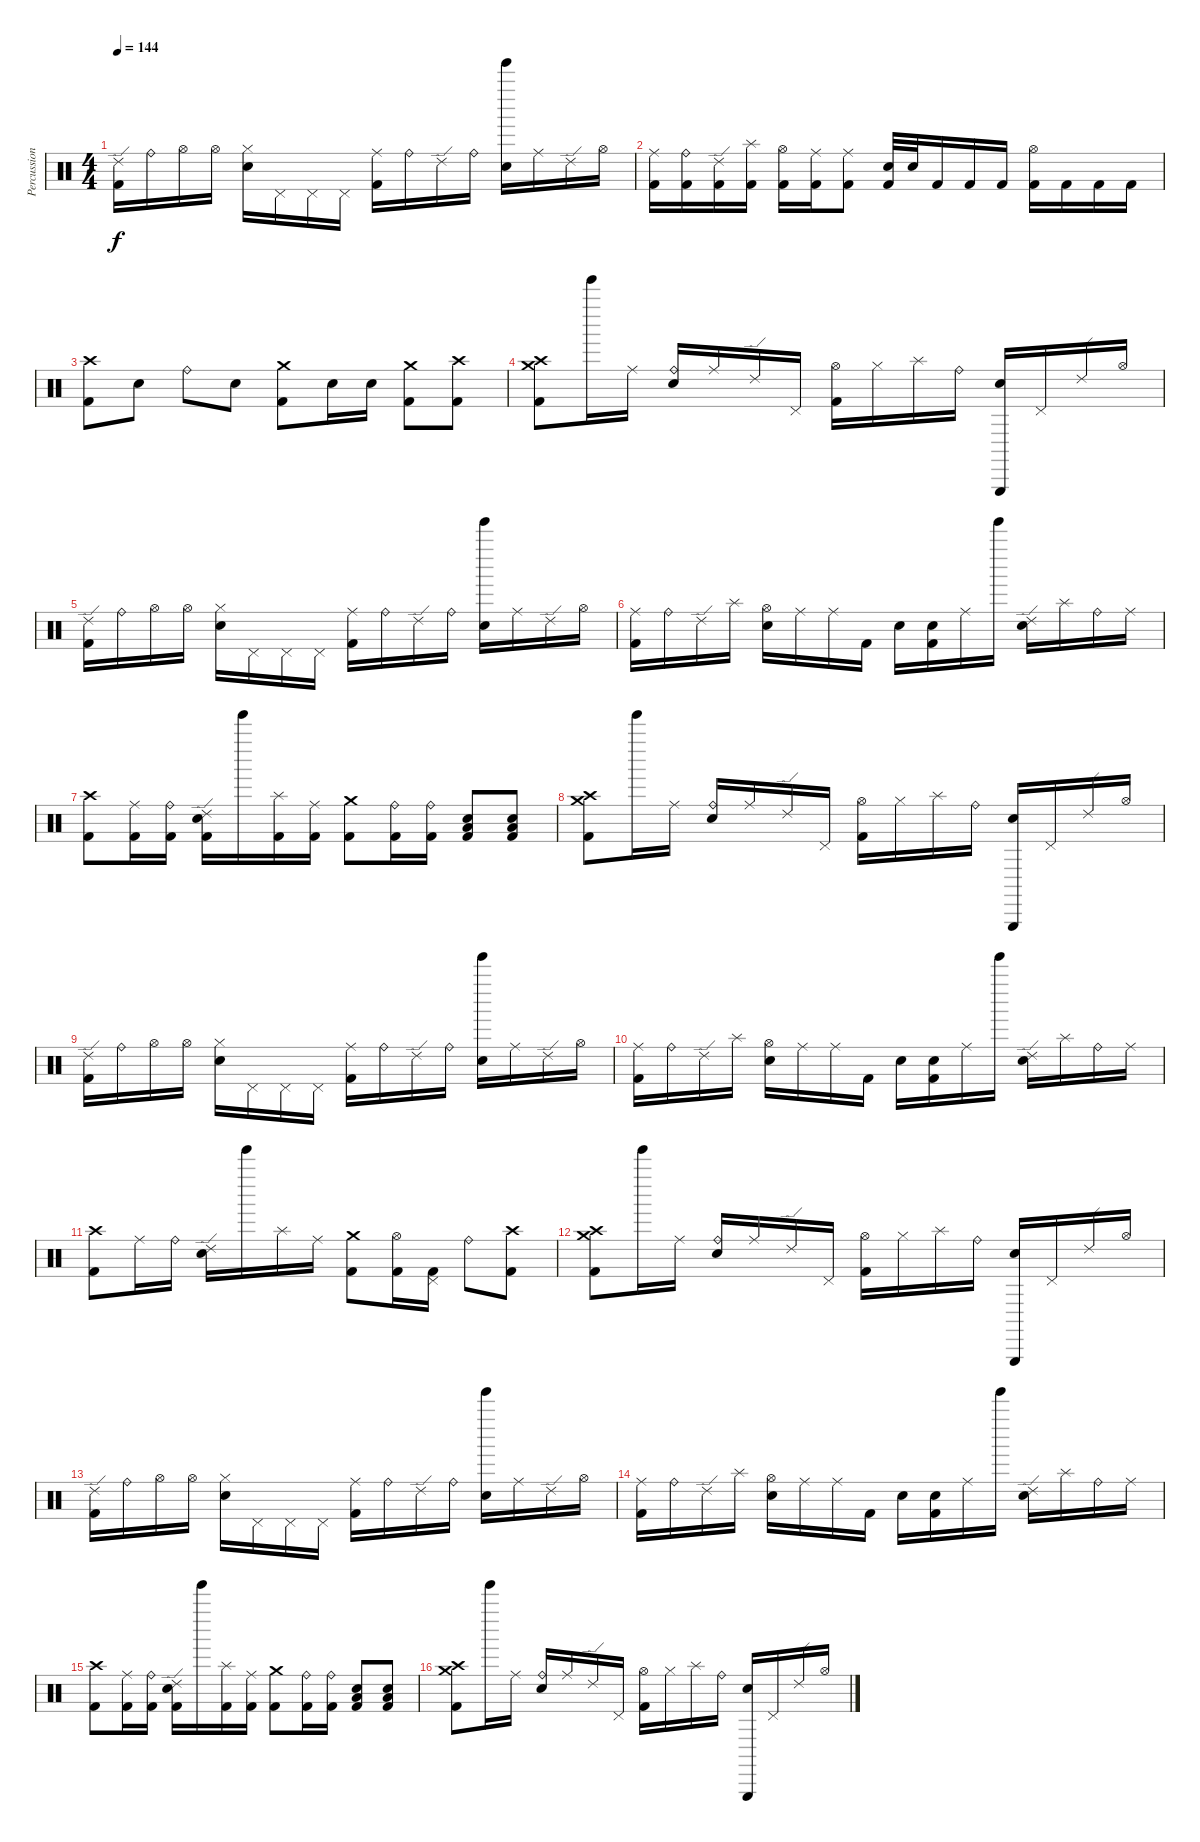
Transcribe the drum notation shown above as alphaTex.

\track ("Percussion" "Percussion") {instrument percussion}
\staff {score}
\articulation defaults
\ts (4 4)
\tempo 144
\clef neutral
\ks c
("Ride (edge) 2" "Kick (hit) 2").16{dy f} "Ride (bell)".16 "Hi-Hat (open)".16 "Hi-Hat (open)".16 ("Hi-Hat (closed)" "Electric Snare (hit)").16 "Pedal Hi-Hat (hit)".16 "Pedal Hi-Hat (hit)".16 "Pedal Hi-Hat (hit)".16 ("Ride (middle)" "Kick (hit) 2").16 "Ride (bell)".16 "Ride (edge) 2".16 "Ride (bell)".16 ("Tinkle Bell (hit)" "Electric Snare (hit)").16 "Ride (middle)".16 "Ride (edge) 2".16 "Hi-Hat (open)".16 |
("Ride (middle)" "Kick (hit) 2").16 ("Ride (bell)" "Kick (hit) 2").16 ("Ride (edge) 2" "Kick (hit) 2").16 ("Splash (hit)" "Kick (hit) 2").16 ("Hi-Hat (open)" "Kick (hit) 2").16 ("Ride (middle)" "Kick (hit) 2").16 ("Ride (middle)" "Kick (hit) 2").8 ("Electric Snare (hit)" "Kick (hit) 2").32 "Electric Snare (hit)".32 "Kick (hit) 2".16 "Kick (hit) 2".16 "Kick (hit) 2".16 ("Hi-Hat (open)" "Kick (hit) 2").16 "Kick (hit) 2".16 "Kick (hit) 2".16 "Kick (hit) 2".16 |
("Crash high (hit)" "Kick (hit) 2").8 "Electric Snare (hit)".8 "Ride (bell)".8 "Electric Snare (hit)".8 ("Crash medium (hit)" "Kick (hit) 2").8 "Electric Snare (hit)".16 "Electric Snare (hit)".16 ("Crash medium (hit)" "Kick (hit) 2").8 ("Crash high (hit)" "Kick (hit) 2").8 |
("Crash medium (hit)" "Crash high (hit)" "Kick (hit) 2").8 "Tinkle Bell (hit)".16 "Ride (middle)".16 ("Ride (bell)" "Electric Snare (hit)").16 "Ride (middle)".16 "Ride (edge) 2".16 "Pedal Hi-Hat (hit)".16 ("Hi-Hat (open)" "Kick (hit) 2").16 "Hi-Hat (closed)".16 "Splash (hit)".16 "Ride (bell)".16 ("Triangle (hit)" "Electric Snare (hit)").16 "Pedal Hi-Hat (hit)".16 "Ride (edge) 2".16 "Hi-Hat (open)".16 |
("Ride (edge) 2" "Kick (hit) 2").16 "Ride (bell)".16 "Hi-Hat (open)".16 "Hi-Hat (open)".16 ("Hi-Hat (closed)" "Electric Snare (hit)").16 "Pedal Hi-Hat (hit)".16 "Pedal Hi-Hat (hit)".16 "Pedal Hi-Hat (hit)".16 ("Ride (middle)" "Kick (hit) 2").16 "Ride (bell)".16 "Ride (edge) 2".16 "Ride (bell)".16 ("Tinkle Bell (hit)" "Electric Snare (hit)").16 "Ride (middle)".16 "Ride (edge) 2".16 "Hi-Hat (open)".16 |
("Ride (middle)" "Kick (hit) 2").16 "Ride (bell)".16 "Ride (edge) 2".16 "Splash (hit)".16 ("Hi-Hat (open)" "Electric Snare (hit)").16 "Ride (middle)".16 "Ride (middle)".16 "Kick (hit) 2".16 "Electric Snare (hit)".16 ("Electric Snare (hit)" "Kick (hit) 2").16 "Ride (middle)".16 "Tinkle Bell (hit)".16 ("Ride (edge) 2" "Electric Snare (hit)").16 "Splash (hit)".16 "Ride (bell)".16 "Ride (middle)".16 |
("Crash high (hit)" "Kick (hit) 2").8 ("Ride (middle)" "Kick (hit) 2").16 ("Ride (bell)" "Kick (hit) 2").16 ("Ride (edge) 2" "Electric Snare (hit)" "Kick (hit) 2").16 "Tinkle Bell (hit)".16 ("Splash (hit)" "Kick (hit) 2").16 ("Ride (middle)" "Kick (hit) 2").16 ("Crash medium (hit)" "Kick (hit) 2").8 ("Ride (bell)" "Kick (hit) 2").16 ("Ride (bell)" "Kick (hit) 2").16 ("Low Tom (hit)" "Electric Snare (hit)" "Kick (hit) 2").8 ("Low Tom (hit)" "Electric Snare (hit)" "Kick (hit) 2").8 |
("Crash medium (hit)" "Crash high (hit)" "Kick (hit) 2").8 "Tinkle Bell (hit)".16 "Ride (middle)".16 ("Ride (bell)" "Electric Snare (hit)").16 "Ride (middle)".16 "Ride (edge) 2".16 "Pedal Hi-Hat (hit)".16 ("Hi-Hat (open)" "Kick (hit) 2").16 "Hi-Hat (closed)".16 "Splash (hit)".16 "Ride (bell)".16 ("Triangle (hit)" "Electric Snare (hit)").16 "Pedal Hi-Hat (hit)".16 "Ride (edge) 2".16 "Hi-Hat (open)".16 |
("Ride (edge) 2" "Kick (hit) 2").16 "Ride (bell)".16 "Hi-Hat (open)".16 "Hi-Hat (open)".16 ("Hi-Hat (closed)" "Electric Snare (hit)").16 "Pedal Hi-Hat (hit)".16 "Pedal Hi-Hat (hit)".16 "Pedal Hi-Hat (hit)".16 ("Ride (middle)" "Kick (hit) 2").16 "Ride (bell)".16 "Ride (edge) 2".16 "Ride (bell)".16 ("Tinkle Bell (hit)" "Electric Snare (hit)").16 "Ride (middle)".16 "Ride (edge) 2".16 "Hi-Hat (open)".16 |
("Ride (middle)" "Kick (hit) 2").16 "Ride (bell)".16 "Ride (edge) 2".16 "Splash (hit)".16 ("Hi-Hat (open)" "Electric Snare (hit)").16 "Ride (middle)".16 "Ride (middle)".16 "Kick (hit) 2".16 "Electric Snare (hit)".16 ("Electric Snare (hit)" "Kick (hit) 2").16 "Ride (middle)".16 "Tinkle Bell (hit)".16 ("Ride (edge) 2" "Electric Snare (hit)").16 "Splash (hit)".16 "Ride (bell)".16 "Ride (middle)".16 |
("Crash high (hit)" "Kick (hit) 2").8 "Ride (middle)".16 "Ride (bell)".16 ("Ride (edge) 2" "Electric Snare (hit)").16 "Tinkle Bell (hit)".16 "Splash (hit)".16 "Ride (middle)".16 ("Crash medium (hit)" "Kick (hit) 2").8 ("Hi-Hat (open)" "Kick (hit) 2").16 ("Pedal Hi-Hat (hit)" "Kick (hit) 2").16 "Ride (bell)".8 ("Crash high (hit)" "Kick (hit) 2").8 |
("Crash medium (hit)" "Crash high (hit)" "Kick (hit) 2").8 "Tinkle Bell (hit)".16 "Ride (middle)".16 ("Ride (bell)" "Electric Snare (hit)").16 "Ride (middle)".16 "Ride (edge) 2".16 "Pedal Hi-Hat (hit)".16 ("Hi-Hat (open)" "Kick (hit) 2").16 "Hi-Hat (closed)".16 "Splash (hit)".16 "Ride (bell)".16 ("Triangle (hit)" "Electric Snare (hit)").16 "Pedal Hi-Hat (hit)".16 "Ride (edge) 2".16 "Hi-Hat (open)".16 |
("Ride (edge) 2" "Kick (hit) 2").16 "Ride (bell)".16 "Hi-Hat (open)".16 "Hi-Hat (open)".16 ("Hi-Hat (closed)" "Electric Snare (hit)").16 "Pedal Hi-Hat (hit)".16 "Pedal Hi-Hat (hit)".16 "Pedal Hi-Hat (hit)".16 ("Ride (middle)" "Kick (hit) 2").16 "Ride (bell)".16 "Ride (edge) 2".16 "Ride (bell)".16 ("Tinkle Bell (hit)" "Electric Snare (hit)").16 "Ride (middle)".16 "Ride (edge) 2".16 "Hi-Hat (open)".16 |
("Ride (middle)" "Kick (hit) 2").16 "Ride (bell)".16 "Ride (edge) 2".16 "Splash (hit)".16 ("Hi-Hat (open)" "Electric Snare (hit)").16 "Ride (middle)".16 "Ride (middle)".16 "Kick (hit) 2".16 "Electric Snare (hit)".16 ("Electric Snare (hit)" "Kick (hit) 2").16 "Ride (middle)".16 "Tinkle Bell (hit)".16 ("Ride (edge) 2" "Electric Snare (hit)").16 "Splash (hit)".16 "Ride (bell)".16 "Ride (middle)".16 |
("Crash high (hit)" "Kick (hit) 2").8 ("Ride (middle)" "Kick (hit) 2").16 ("Ride (bell)" "Kick (hit) 2").16 ("Ride (edge) 2" "Electric Snare (hit)" "Kick (hit) 2").16 "Tinkle Bell (hit)".16 ("Splash (hit)" "Kick (hit) 2").16 ("Ride (middle)" "Kick (hit) 2").16 ("Crash medium (hit)" "Kick (hit) 2").8 ("Ride (bell)" "Kick (hit) 2").16 ("Ride (bell)" "Kick (hit) 2").16 ("Low Tom (hit)" "Electric Snare (hit)" "Kick (hit) 2").8 ("Low Tom (hit)" "Electric Snare (hit)" "Kick (hit) 2").8 |
("Crash medium (hit)" "Crash high (hit)" "Kick (hit) 2").8 "Tinkle Bell (hit)".16 "Ride (middle)".16 ("Ride (bell)" "Electric Snare (hit)").16 "Ride (middle)".16 "Ride (edge) 2".16 "Pedal Hi-Hat (hit)".16 ("Hi-Hat (open)" "Kick (hit) 2").16 "Hi-Hat (closed)".16 "Splash (hit)".16 "Ride (bell)".16 ("Triangle (hit)" "Electric Snare (hit)").16 "Pedal Hi-Hat (hit)".16 "Ride (edge) 2".16 "Hi-Hat (open)".16
